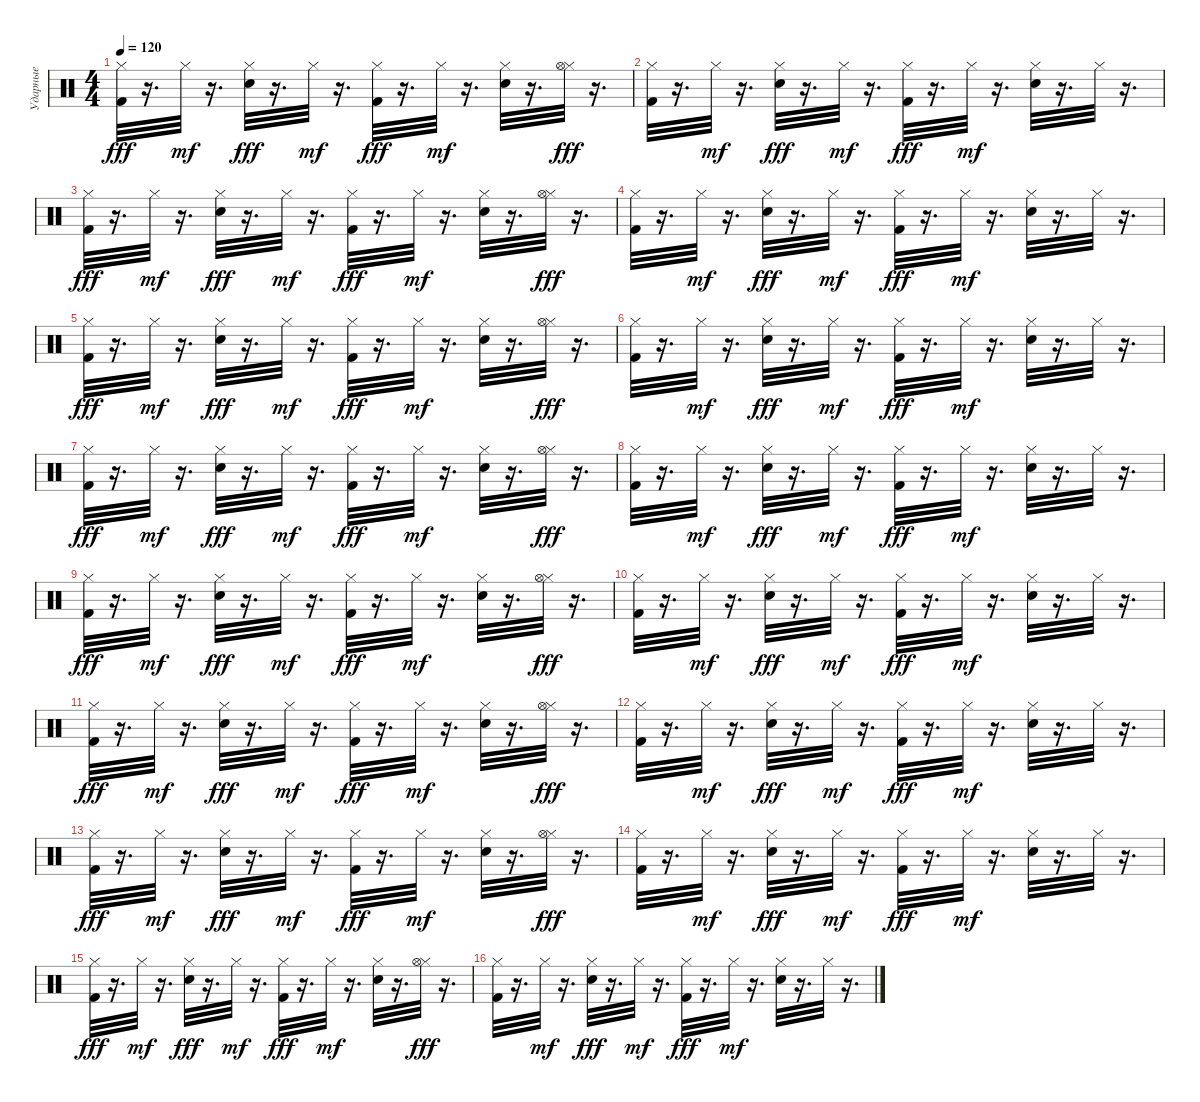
\track ("Ударные" "Ударные") {instrument percussion}
\staff {score}
\articulation defaults
\ts (4 4)
\tempo 120
\clef neutral
\ks c
("Hi-Hat (closed)" "Kick (hit) 2").32{dy fff} r.16{d} "Hi-Hat (closed)".32{dy mf} r.16{d} ("Hi-Hat (closed)" "Snare (hit) 2").32{dy fff} r.16{d} "Hi-Hat (closed)".32{dy mf} r.16{d} ("Hi-Hat (closed)" "Kick (hit) 2").32{dy fff} r.16{d} "Hi-Hat (closed)".32{dy mf} r.16{d} ("Snare (hit) 2" "Hi-Hat (closed)").32 r.16{d} ("Hi-Hat (closed)" "Hi-Hat (open)").32{dy fff} r.16{d} |
("Hi-Hat (closed)" "Kick (hit) 2").32 r.16{d} "Hi-Hat (closed)".32{dy mf} r.16{d} ("Hi-Hat (closed)" "Snare (hit) 2").32{dy fff} r.16{d} "Hi-Hat (closed)".32{dy mf} r.16{d} ("Hi-Hat (closed)" "Kick (hit) 2").32{dy fff} r.16{d} "Hi-Hat (closed)".32{dy mf} r.16{d} ("Snare (hit) 2" "Hi-Hat (closed)").32 r.16{d} "Hi-Hat (closed)".32 r.16{d} |
("Hi-Hat (closed)" "Kick (hit) 2").32{dy fff} r.16{d} "Hi-Hat (closed)".32{dy mf} r.16{d} ("Hi-Hat (closed)" "Snare (hit) 2").32{dy fff} r.16{d} "Hi-Hat (closed)".32{dy mf} r.16{d} ("Hi-Hat (closed)" "Kick (hit) 2").32{dy fff} r.16{d} "Hi-Hat (closed)".32{dy mf} r.16{d} ("Snare (hit) 2" "Hi-Hat (closed)").32 r.16{d} ("Hi-Hat (closed)" "Hi-Hat (open)").32{dy fff} r.16{d} |
("Hi-Hat (closed)" "Kick (hit) 2").32 r.16{d} "Hi-Hat (closed)".32{dy mf} r.16{d} ("Hi-Hat (closed)" "Snare (hit) 2").32{dy fff} r.16{d} "Hi-Hat (closed)".32{dy mf} r.16{d} ("Hi-Hat (closed)" "Kick (hit) 2").32{dy fff} r.16{d} "Hi-Hat (closed)".32{dy mf} r.16{d} ("Snare (hit) 2" "Hi-Hat (closed)").32 r.16{d} "Hi-Hat (closed)".32 r.16{d} |
("Hi-Hat (closed)" "Kick (hit) 2").32{dy fff} r.16{d} "Hi-Hat (closed)".32{dy mf} r.16{d} ("Hi-Hat (closed)" "Snare (hit) 2").32{dy fff} r.16{d} "Hi-Hat (closed)".32{dy mf} r.16{d} ("Hi-Hat (closed)" "Kick (hit) 2").32{dy fff} r.16{d} "Hi-Hat (closed)".32{dy mf} r.16{d} ("Snare (hit) 2" "Hi-Hat (closed)").32 r.16{d} ("Hi-Hat (closed)" "Hi-Hat (open)").32{dy fff} r.16{d} |
("Hi-Hat (closed)" "Kick (hit) 2").32 r.16{d} "Hi-Hat (closed)".32{dy mf} r.16{d} ("Hi-Hat (closed)" "Snare (hit) 2").32{dy fff} r.16{d} "Hi-Hat (closed)".32{dy mf} r.16{d} ("Hi-Hat (closed)" "Kick (hit) 2").32{dy fff} r.16{d} "Hi-Hat (closed)".32{dy mf} r.16{d} ("Snare (hit) 2" "Hi-Hat (closed)").32 r.16{d} "Hi-Hat (closed)".32 r.16{d} |
("Hi-Hat (closed)" "Kick (hit) 2").32{dy fff} r.16{d} "Hi-Hat (closed)".32{dy mf} r.16{d} ("Hi-Hat (closed)" "Snare (hit) 2").32{dy fff} r.16{d} "Hi-Hat (closed)".32{dy mf} r.16{d} ("Hi-Hat (closed)" "Kick (hit) 2").32{dy fff} r.16{d} "Hi-Hat (closed)".32{dy mf} r.16{d} ("Snare (hit) 2" "Hi-Hat (closed)").32 r.16{d} ("Hi-Hat (closed)" "Hi-Hat (open)").32{dy fff} r.16{d} |
("Hi-Hat (closed)" "Kick (hit) 2").32 r.16{d} "Hi-Hat (closed)".32{dy mf} r.16{d} ("Hi-Hat (closed)" "Snare (hit) 2").32{dy fff} r.16{d} "Hi-Hat (closed)".32{dy mf} r.16{d} ("Hi-Hat (closed)" "Kick (hit) 2").32{dy fff} r.16{d} "Hi-Hat (closed)".32{dy mf} r.16{d} ("Snare (hit) 2" "Hi-Hat (closed)").32 r.16{d} "Hi-Hat (closed)".32 r.16{d} |
("Hi-Hat (closed)" "Kick (hit) 2").32{dy fff} r.16{d} "Hi-Hat (closed)".32{dy mf} r.16{d} ("Hi-Hat (closed)" "Snare (hit) 2").32{dy fff} r.16{d} "Hi-Hat (closed)".32{dy mf} r.16{d} ("Hi-Hat (closed)" "Kick (hit) 2").32{dy fff} r.16{d} "Hi-Hat (closed)".32{dy mf} r.16{d} ("Snare (hit) 2" "Hi-Hat (closed)").32 r.16{d} ("Hi-Hat (closed)" "Hi-Hat (open)").32{dy fff} r.16{d} |
("Hi-Hat (closed)" "Kick (hit) 2").32 r.16{d} "Hi-Hat (closed)".32{dy mf} r.16{d} ("Hi-Hat (closed)" "Snare (hit) 2").32{dy fff} r.16{d} "Hi-Hat (closed)".32{dy mf} r.16{d} ("Hi-Hat (closed)" "Kick (hit) 2").32{dy fff} r.16{d} "Hi-Hat (closed)".32{dy mf} r.16{d} ("Snare (hit) 2" "Hi-Hat (closed)").32 r.16{d} "Hi-Hat (closed)".32 r.16{d} |
("Hi-Hat (closed)" "Kick (hit) 2").32{dy fff} r.16{d} "Hi-Hat (closed)".32{dy mf} r.16{d} ("Hi-Hat (closed)" "Snare (hit) 2").32{dy fff} r.16{d} "Hi-Hat (closed)".32{dy mf} r.16{d} ("Hi-Hat (closed)" "Kick (hit) 2").32{dy fff} r.16{d} "Hi-Hat (closed)".32{dy mf} r.16{d} ("Snare (hit) 2" "Hi-Hat (closed)").32 r.16{d} ("Hi-Hat (closed)" "Hi-Hat (open)").32{dy fff} r.16{d} |
("Hi-Hat (closed)" "Kick (hit) 2").32 r.16{d} "Hi-Hat (closed)".32{dy mf} r.16{d} ("Hi-Hat (closed)" "Snare (hit) 2").32{dy fff} r.16{d} "Hi-Hat (closed)".32{dy mf} r.16{d} ("Hi-Hat (closed)" "Kick (hit) 2").32{dy fff} r.16{d} "Hi-Hat (closed)".32{dy mf} r.16{d} ("Snare (hit) 2" "Hi-Hat (closed)").32 r.16{d} "Hi-Hat (closed)".32 r.16{d} |
("Hi-Hat (closed)" "Kick (hit) 2").32{dy fff} r.16{d} "Hi-Hat (closed)".32{dy mf} r.16{d} ("Hi-Hat (closed)" "Snare (hit) 2").32{dy fff} r.16{d} "Hi-Hat (closed)".32{dy mf} r.16{d} ("Hi-Hat (closed)" "Kick (hit) 2").32{dy fff} r.16{d} "Hi-Hat (closed)".32{dy mf} r.16{d} ("Snare (hit) 2" "Hi-Hat (closed)").32 r.16{d} ("Hi-Hat (closed)" "Hi-Hat (open)").32{dy fff} r.16{d} |
("Hi-Hat (closed)" "Kick (hit) 2").32 r.16{d} "Hi-Hat (closed)".32{dy mf} r.16{d} ("Hi-Hat (closed)" "Snare (hit) 2").32{dy fff} r.16{d} "Hi-Hat (closed)".32{dy mf} r.16{d} ("Hi-Hat (closed)" "Kick (hit) 2").32{dy fff} r.16{d} "Hi-Hat (closed)".32{dy mf} r.16{d} ("Snare (hit) 2" "Hi-Hat (closed)").32 r.16{d} "Hi-Hat (closed)".32 r.16{d} |
("Hi-Hat (closed)" "Kick (hit) 2").32{dy fff} r.16{d} "Hi-Hat (closed)".32{dy mf} r.16{d} ("Hi-Hat (closed)" "Snare (hit) 2").32{dy fff} r.16{d} "Hi-Hat (closed)".32{dy mf} r.16{d} ("Hi-Hat (closed)" "Kick (hit) 2").32{dy fff} r.16{d} "Hi-Hat (closed)".32{dy mf} r.16{d} ("Snare (hit) 2" "Hi-Hat (closed)").32 r.16{d} ("Hi-Hat (closed)" "Hi-Hat (open)").32{dy fff} r.16{d} |
("Hi-Hat (closed)" "Kick (hit) 2").32 r.16{d} "Hi-Hat (closed)".32{dy mf} r.16{d} ("Hi-Hat (closed)" "Snare (hit) 2").32{dy fff} r.16{d} "Hi-Hat (closed)".32{dy mf} r.16{d} ("Hi-Hat (closed)" "Kick (hit) 2").32{dy fff} r.16{d} "Hi-Hat (closed)".32{dy mf} r.16{d} ("Snare (hit) 2" "Hi-Hat (closed)").32 r.16{d} "Hi-Hat (closed)".32 r.16{d}
